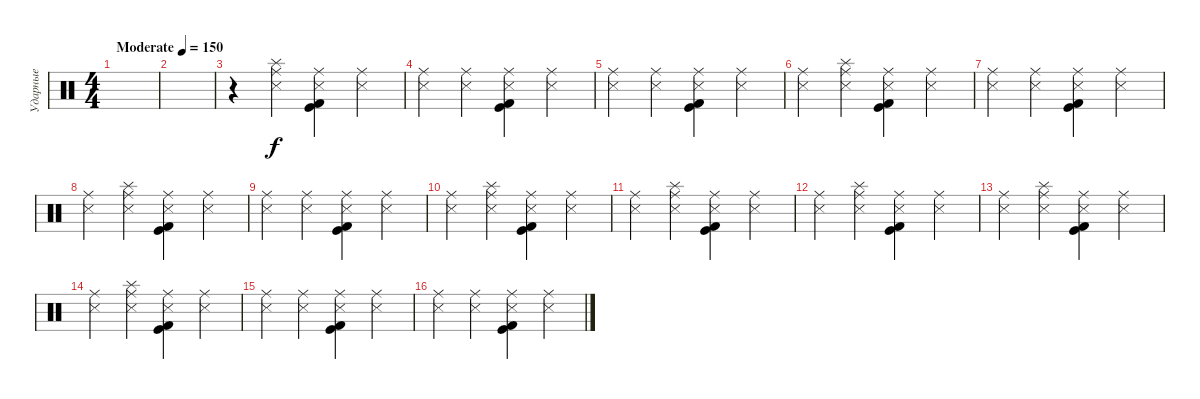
\track ("Ударные" "Ударные") {instrument percussion}
\staff {score}
\articulation defaults
\ts (4 4)
\tempo (150 "Moderate")
\clef neutral
\ks c
|
|
r.4 ("Ride (middle)" "Metronome (hit)" "Splash (hit)").4 ("Ride (middle)" "Metronome (hit)" "Kick (hit)" "Kick (hit) 2").4 ("Ride (middle)" "Metronome (hit)").4 |
("Ride (middle)" "Metronome (hit)").4 ("Ride (middle)" "Metronome (hit)").4 ("Ride (middle)" "Metronome (hit)" "Kick (hit)" "Kick (hit) 2").4 ("Ride (middle)" "Metronome (hit)").4 |
("Ride (middle)" "Metronome (hit)").4 ("Ride (middle)" "Metronome (hit)").4 ("Ride (middle)" "Metronome (hit)" "Kick (hit)" "Kick (hit) 2").4 ("Ride (middle)" "Metronome (hit)").4 |
("Ride (middle)" "Metronome (hit)").4 ("Ride (middle)" "Metronome (hit)" "Splash (hit)").4 ("Ride (middle)" "Metronome (hit)" "Kick (hit)" "Kick (hit) 2").4 ("Ride (middle)" "Metronome (hit)").4 |
("Ride (middle)" "Metronome (hit)").4 ("Ride (middle)" "Metronome (hit)").4 ("Ride (middle)" "Metronome (hit)" "Kick (hit)" "Kick (hit) 2").4 ("Ride (middle)" "Metronome (hit)").4 |
("Ride (middle)" "Metronome (hit)").4 ("Ride (middle)" "Metronome (hit)" "Splash (hit)").4 ("Ride (middle)" "Metronome (hit)" "Kick (hit)" "Kick (hit) 2").4 ("Ride (middle)" "Metronome (hit)").4 |
("Ride (middle)" "Metronome (hit)").4 ("Ride (middle)" "Metronome (hit)").4 ("Ride (middle)" "Metronome (hit)" "Kick (hit)" "Kick (hit) 2").4 ("Ride (middle)" "Metronome (hit)").4 |
("Ride (middle)" "Metronome (hit)").4 ("Ride (middle)" "Metronome (hit)" "Splash (hit)").4 ("Ride (middle)" "Metronome (hit)" "Kick (hit)" "Kick (hit) 2").4 ("Ride (middle)" "Metronome (hit)").4 |
("Ride (middle)" "Metronome (hit)").4 ("Ride (middle)" "Metronome (hit)" "Splash (hit)").4 ("Ride (middle)" "Metronome (hit)" "Kick (hit)" "Kick (hit) 2").4 ("Ride (middle)" "Metronome (hit)").4 |
("Ride (middle)" "Metronome (hit)").4 ("Ride (middle)" "Metronome (hit)" "Splash (hit)").4 ("Ride (middle)" "Metronome (hit)" "Kick (hit)" "Kick (hit) 2").4 ("Ride (middle)" "Metronome (hit)").4 |
("Ride (middle)" "Metronome (hit)").4 ("Ride (middle)" "Metronome (hit)" "Splash (hit)").4 ("Ride (middle)" "Metronome (hit)" "Kick (hit)" "Kick (hit) 2").4 ("Ride (middle)" "Metronome (hit)").4 |
("Ride (middle)" "Metronome (hit)").4 ("Ride (middle)" "Metronome (hit)" "Splash (hit)").4 ("Ride (middle)" "Metronome (hit)" "Kick (hit)" "Kick (hit) 2").4 ("Ride (middle)" "Metronome (hit)").4 |
("Ride (middle)" "Metronome (hit)").4 ("Ride (middle)" "Metronome (hit)").4 ("Ride (middle)" "Metronome (hit)" "Kick (hit)" "Kick (hit) 2").4 ("Ride (middle)" "Metronome (hit)").4 |
("Ride (middle)" "Metronome (hit)").4 ("Ride (middle)" "Metronome (hit)").4 ("Ride (middle)" "Metronome (hit)" "Kick (hit)" "Kick (hit) 2").4 ("Ride (middle)" "Metronome (hit)").4
